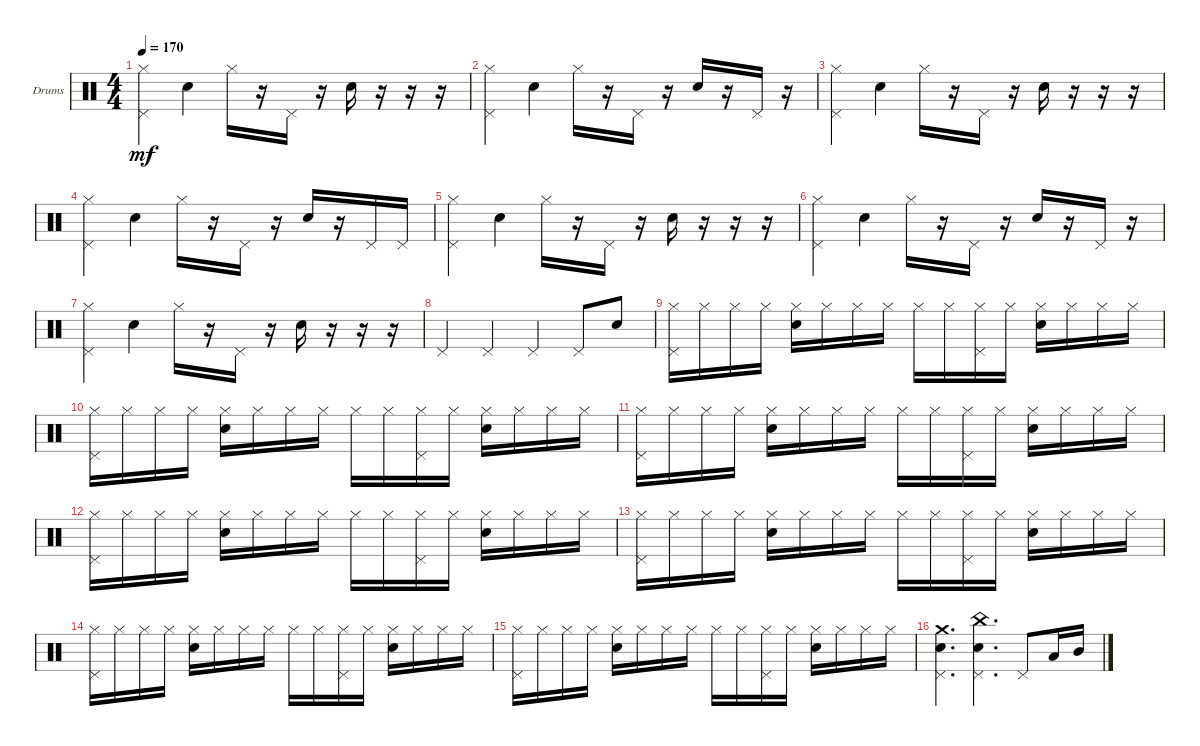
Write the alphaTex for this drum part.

\defaultSystemsLayout 4
\bracketExtendMode groupsimilarinstruments
\firstSystemTrackNameOrientation horizontal
\otherSystemsTrackNameOrientation horizontal
\track ("Drumkit" "Drums") {instrument percussion}
\staff {score}
\articulation defaults
\ts (4 4)
\tempo 170
\clef neutral
\scale
0.333333
\ks c
("Hi-Hat (closed)" "Pedal Hi-Hat (hit)").4{dy mf} "Snare (hit) 2".4 "Hi-Hat (closed)".16 r.16 "Pedal Hi-Hat (hit)".16 r.16 "Snare (hit) 2".16 r.16 r.16 r.16 |
\scale
0.333333 ("Hi-Hat (closed)" "Pedal Hi-Hat (hit)").4 "Snare (hit) 2".4 "Hi-Hat (closed)".16 r.16 "Pedal Hi-Hat (hit)".16 r.16 "Snare (hit) 2".16 r.16 "Pedal Hi-Hat (hit)".16 r.16 |
\scale
0.333333 ("Hi-Hat (closed)" "Pedal Hi-Hat (hit)").4 "Snare (hit) 2".4 "Hi-Hat (closed)".16 r.16 "Pedal Hi-Hat (hit)".16 r.16 "Snare (hit) 2".16 r.16 r.16 r.16 |
\scale
0.333333 ("Hi-Hat (closed)" "Pedal Hi-Hat (hit)").4 "Snare (hit) 2".4 "Hi-Hat (closed)".16 r.16 "Pedal Hi-Hat (hit)".16 r.16 "Snare (hit) 2".16 r.16 "Pedal Hi-Hat (hit)".16 "Pedal Hi-Hat (hit)".16 |
\scale
0.333333 ("Hi-Hat (closed)" "Pedal Hi-Hat (hit)").4 "Snare (hit) 2".4 "Hi-Hat (closed)".16 r.16 "Pedal Hi-Hat (hit)".16 r.16 "Snare (hit) 2".16 r.16 r.16 r.16 |
\scale
0.333333 ("Hi-Hat (closed)" "Pedal Hi-Hat (hit)").4 "Snare (hit) 2".4 "Hi-Hat (closed)".16 r.16 "Pedal Hi-Hat (hit)".16 r.16 "Snare (hit) 2".16 r.16 "Pedal Hi-Hat (hit)".16 r.16 |
\scale
0.333333 ("Hi-Hat (closed)" "Pedal Hi-Hat (hit)").4 "Snare (hit) 2".4 "Hi-Hat (closed)".16 r.16 "Pedal Hi-Hat (hit)".16 r.16 "Snare (hit) 2".16 r.16 r.16 r.16 |
\scale
0.333333 "Pedal Hi-Hat (hit)".4 "Pedal Hi-Hat (hit)".4 "Pedal Hi-Hat (hit)".4 "Pedal Hi-Hat (hit)".8 "Snare (hit) 2".8 |
\scale
0.333333 ("Hi-Hat (closed)" "Pedal Hi-Hat (hit)").16 "Hi-Hat (closed)".16 "Hi-Hat (closed)".16 "Hi-Hat (closed)".16 ("Hi-Hat (closed)" "Snare (hit) 2").16 "Hi-Hat (closed)".16 "Hi-Hat (closed)".16 "Hi-Hat (closed)".16 "Hi-Hat (closed)".16 "Hi-Hat (closed)".16 ("Hi-Hat (closed)" "Pedal Hi-Hat (hit)").16 "Hi-Hat (closed)".16 ("Hi-Hat (closed)" "Snare (hit) 2").16 "Hi-Hat (closed)".16 "Hi-Hat (closed)".16 "Hi-Hat (closed)".16 |
\scale
0.333333 ("Hi-Hat (closed)" "Pedal Hi-Hat (hit)").16 "Hi-Hat (closed)".16 "Hi-Hat (closed)".16 "Hi-Hat (closed)".16 ("Hi-Hat (closed)" "Snare (hit) 2").16 "Hi-Hat (closed)".16 "Hi-Hat (closed)".16 "Hi-Hat (closed)".16 "Hi-Hat (closed)".16 "Hi-Hat (closed)".16 ("Hi-Hat (closed)" "Pedal Hi-Hat (hit)").16 "Hi-Hat (closed)".16 ("Hi-Hat (closed)" "Snare (hit) 2").16 "Hi-Hat (closed)".16 "Hi-Hat (closed)".16 "Hi-Hat (closed)".16 |
\scale
0.333333 ("Hi-Hat (closed)" "Pedal Hi-Hat (hit)").16 "Hi-Hat (closed)".16 "Hi-Hat (closed)".16 "Hi-Hat (closed)".16 ("Hi-Hat (closed)" "Snare (hit) 2").16 "Hi-Hat (closed)".16 "Hi-Hat (closed)".16 "Hi-Hat (closed)".16 "Hi-Hat (closed)".16 "Hi-Hat (closed)".16 ("Hi-Hat (closed)" "Pedal Hi-Hat (hit)").16 "Hi-Hat (closed)".16 ("Hi-Hat (closed)" "Snare (hit) 2").16 "Hi-Hat (closed)".16 "Hi-Hat (closed)".16 "Hi-Hat (closed)".16 |
\scale
0.333333 ("Hi-Hat (closed)" "Pedal Hi-Hat (hit)").16 "Hi-Hat (closed)".16 "Hi-Hat (closed)".16 "Hi-Hat (closed)".16 ("Hi-Hat (closed)" "Snare (hit) 2").16 "Hi-Hat (closed)".16 "Hi-Hat (closed)".16 "Hi-Hat (closed)".16 "Hi-Hat (closed)".16 "Hi-Hat (closed)".16 ("Hi-Hat (closed)" "Pedal Hi-Hat (hit)").16 "Hi-Hat (closed)".16 ("Hi-Hat (closed)" "Snare (hit) 2").16 "Hi-Hat (closed)".16 "Hi-Hat (closed)".16 "Hi-Hat (closed)".16 |
\scale
0.333333 ("Hi-Hat (closed)" "Pedal Hi-Hat (hit)").16 "Hi-Hat (closed)".16 "Hi-Hat (closed)".16 "Hi-Hat (closed)".16 ("Hi-Hat (closed)" "Snare (hit) 2").16 "Hi-Hat (closed)".16 "Hi-Hat (closed)".16 "Hi-Hat (closed)".16 "Hi-Hat (closed)".16 "Hi-Hat (closed)".16 ("Hi-Hat (closed)" "Pedal Hi-Hat (hit)").16 "Hi-Hat (closed)".16 ("Hi-Hat (closed)" "Snare (hit) 2").16 "Hi-Hat (closed)".16 "Hi-Hat (closed)".16 "Hi-Hat (closed)".16 |
\scale
0.333333 ("Hi-Hat (closed)" "Pedal Hi-Hat (hit)").16 "Hi-Hat (closed)".16 "Hi-Hat (closed)".16 "Hi-Hat (closed)".16 ("Hi-Hat (closed)" "Snare (hit) 2").16 "Hi-Hat (closed)".16 "Hi-Hat (closed)".16 "Hi-Hat (closed)".16 "Hi-Hat (closed)".16 "Hi-Hat (closed)".16 ("Hi-Hat (closed)" "Pedal Hi-Hat (hit)").16 "Hi-Hat (closed)".16 ("Hi-Hat (closed)" "Snare (hit) 2").16 "Hi-Hat (closed)".16 "Hi-Hat (closed)".16 "Hi-Hat (closed)".16 |
\scale
0.333333 ("Hi-Hat (closed)" "Pedal Hi-Hat (hit)").16 "Hi-Hat (closed)".16 "Hi-Hat (closed)".16 "Hi-Hat (closed)".16 ("Hi-Hat (closed)" "Snare (hit) 2").16 "Hi-Hat (closed)".16 "Hi-Hat (closed)".16 "Hi-Hat (closed)".16 "Hi-Hat (closed)".16 "Hi-Hat (closed)".16 ("Hi-Hat (closed)" "Pedal Hi-Hat (hit)").16 "Hi-Hat (closed)".16 ("Hi-Hat (closed)" "Snare (hit) 2").16 "Hi-Hat (closed)".16 "Hi-Hat (closed)".16 "Hi-Hat (closed)".16 |
\scale
0.333333 ("Crash medium (hit)" "Snare (hit) 2" "Pedal Hi-Hat (hit)").4{d} ("Pedal Hi-Hat (hit)" "Snare (hit) 2" "China (hit)").4{d} "Pedal Hi-Hat (hit)".8 "Low Tom (hit)".16 "Mid Tom (hit)".16
